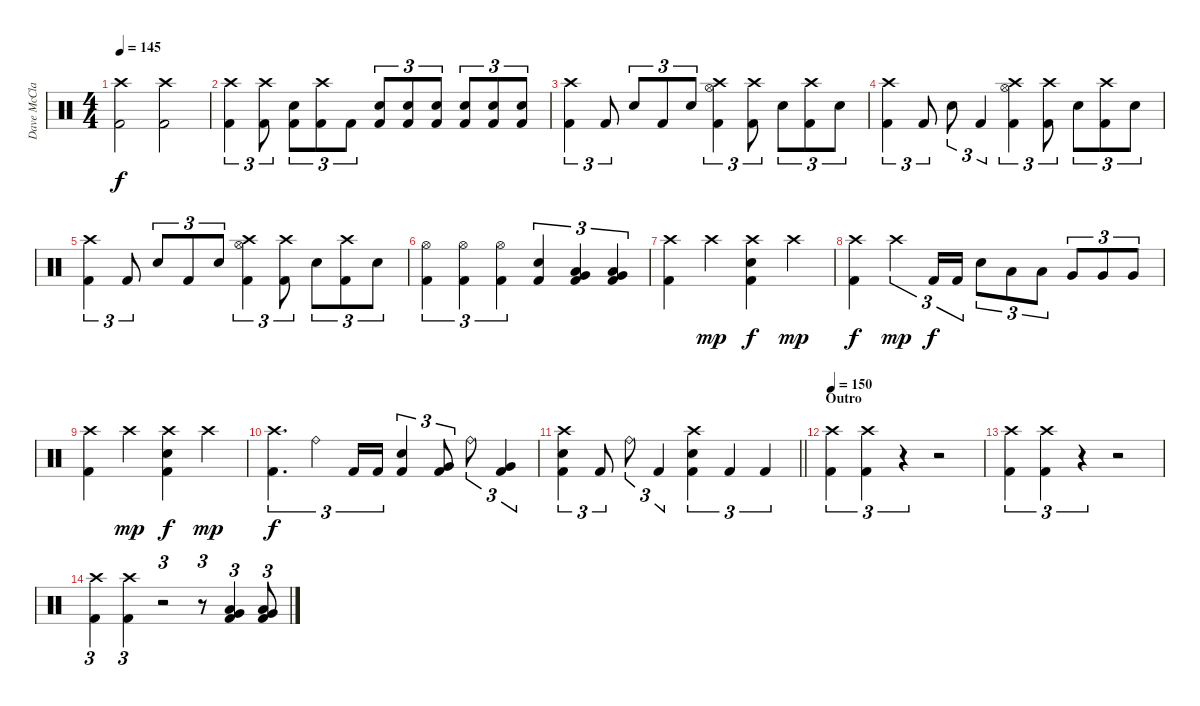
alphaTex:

\track ("Dave McClain" "Dave McCla") {instrument percussion}
\staff {score}
\articulation defaults
\ts (4 4)
\tempo 145
\clef neutral
\ks c
("Crash high (hit)" "Kick (hit) 2").2{dy f} ("Crash high (hit)" "Kick (hit) 2").2 |
("Crash high (hit)" "Kick (hit) 2").4{tu (3 2)} ("Crash high (hit)" "Kick (hit) 2").8{tu (3 2)} ("Snare (hit) 2" "Kick (hit) 2").8{tu (3 2)} ("Crash high (hit)" "Kick (hit) 2").8{tu (3 2)} "Kick (hit) 2".8{tu (3 2)} ("Snare (hit) 2" "Kick (hit) 2").8{tu (3 2)} ("Snare (hit) 2" "Kick (hit) 2").8{tu (3 2)} ("Snare (hit) 2" "Kick (hit) 2").8{tu (3 2)} ("Snare (hit) 2" "Kick (hit) 2").8{tu (3 2)} ("Snare (hit) 2" "Kick (hit) 2").8{tu (3 2)} ("Snare (hit) 2" "Kick (hit) 2").8{tu (3 2)} |
("Crash high (hit)" "Kick (hit) 2").4{tu (3 2)} "Kick (hit) 2".8{tu (3 2)} "Snare (hit) 2".8{tu (3 2)} "Kick (hit) 2".8{tu (3 2)} "Snare (hit) 2".8{tu (3 2)} ("Crash high (hit)" "Hi-Hat (open)" "Kick (hit) 2").4{tu (3 2)} ("Crash high (hit)" "Kick (hit) 2").8{tu (3 2)} "Snare (hit) 2".8{tu (3 2)} ("Crash high (hit)" "Kick (hit) 2").8{tu (3 2)} "Snare (hit) 2".8{tu (3 2)} |
("Crash high (hit)" "Kick (hit) 2").4{tu (3 2)} "Kick (hit) 2".8{tu (3 2)} "Snare (hit) 2".8{tu (3 2)} "Kick (hit) 2".4{tu (3 2)} ("Crash high (hit)" "Hi-Hat (open)" "Kick (hit) 2").4{tu (3 2)} ("Crash high (hit)" "Kick (hit) 2").8{tu (3 2)} "Snare (hit) 2".8{tu (3 2)} ("Crash high (hit)" "Kick (hit) 2").8{tu (3 2)} "Snare (hit) 2".8{tu (3 2)} |
("Crash high (hit)" "Kick (hit) 2").4{tu (3 2)} "Kick (hit) 2".8{tu (3 2)} "Snare (hit) 2".8{tu (3 2)} "Kick (hit) 2".8{tu (3 2)} "Snare (hit) 2".8{tu (3 2)} ("Crash high (hit)" "Hi-Hat (open)" "Kick (hit) 2").4{tu (3 2)} ("Crash high (hit)" "Kick (hit) 2").8{tu (3 2)} "Snare (hit) 2".8{tu (3 2)} ("Crash high (hit)" "Kick (hit) 2").8{tu (3 2)} "Snare (hit) 2".8{tu (3 2)} |
("Hi-Hat (open)" "Kick (hit) 2").4{tu (3 2)} ("Hi-Hat (open)" "Kick (hit) 2").4{tu (3 2)} ("Hi-Hat (open)" "Kick (hit) 2").4{tu (3 2)} ("Snare (hit) 2" "Kick (hit) 2").4{tu (3 2)} ("Low Tom (hit)" "Very Low Tom (hit)" "Kick (hit) 2").4{tu (3 2)} ("Low Tom (hit)" "Very Low Tom (hit)" "Kick (hit) 2").4{tu (3 2)} |
("Crash high (hit)" "Kick (hit) 2").4 "Crash high (hit)".4{dy mp} ("Crash high (hit)" "Snare (hit) 2" "Kick (hit) 2").4{dy f} "Crash high (hit)".4{dy mp} |
("Crash high (hit)" "Kick (hit) 2").4{dy f} "Crash high (hit)".4{tu (3 2) dy mp} "Kick (hit) 2".16{tu (3 2) dy f} "Kick (hit) 2".16{tu (3 2)} "Snare (hit) 2".8{tu (3 2)} "Low Tom (hit)".8{tu (3 2)} "Low Tom (hit)".8{tu (3 2)} "Very Low Tom (hit)".8{tu (3 2)} "Very Low Tom (hit)".8{tu (3 2)} "Very Low Tom (hit)".8{tu (3 2)} |
("Crash high (hit)" "Kick (hit) 2").4 "Crash high (hit)".4{dy mp} ("Crash high (hit)" "Snare (hit) 2" "Kick (hit) 2").4{dy f} "Crash high (hit)".4{dy mp} |
("Crash high (hit)" "Kick (hit) 2").4{d tu (3 2) dy f} "Ride (bell)".4{tu (3 2)} "Kick (hit) 2".16{tu (3 2)} "Kick (hit) 2".16{tu (3 2)} ("Snare (hit) 2" "Kick (hit) 2").4{tu (3 2)} ("Very Low Tom (hit)" "Kick (hit) 2").8{tu (3 2)} "Ride (bell)".8{tu (3 2)} ("Very Low Tom (hit)" "Kick (hit) 2").4{tu (3 2)} |
\barLineRight lightlight
("Crash high (hit)" "Snare (hit) 2" "Kick (hit) 2").4{tu (3 2)} "Kick (hit) 2".8{tu (3 2)} "Ride (bell)".8{tu (3 2)} "Kick (hit) 2".4{tu (3 2)} ("Crash high (hit)" "Snare (hit) 2" "Kick (hit) 2").4{tu (3 2)} "Kick (hit) 2".4{tu (3 2)} "Kick (hit) 2".4{tu (3 2)} |
\section ("" "Outro")
\tempo 150
("Crash high (hit)" "Kick (hit) 2").4{tu (3 2)} ("Crash high (hit)" "Kick (hit) 2").4{tu (3 2)} r.4{tu (3 2)} r.2 |
("Crash high (hit)" "Kick (hit) 2").4{tu (3 2)} ("Crash high (hit)" "Kick (hit) 2").4{tu (3 2)} r.4{tu (3 2)} r.2 |
("Crash high (hit)" "Kick (hit) 2").4{tu (3 2)} ("Crash high (hit)" "Kick (hit) 2").4{tu (3 2)} r.2{tu (3 2)} r.8{tu (3 2)} ("Low Tom (hit)" "Very Low Tom (hit)" "Kick (hit) 2").4{tu (3 2)} ("Low Tom (hit)" "Very Low Tom (hit)" "Kick (hit) 2").8{tu (3 2)}
